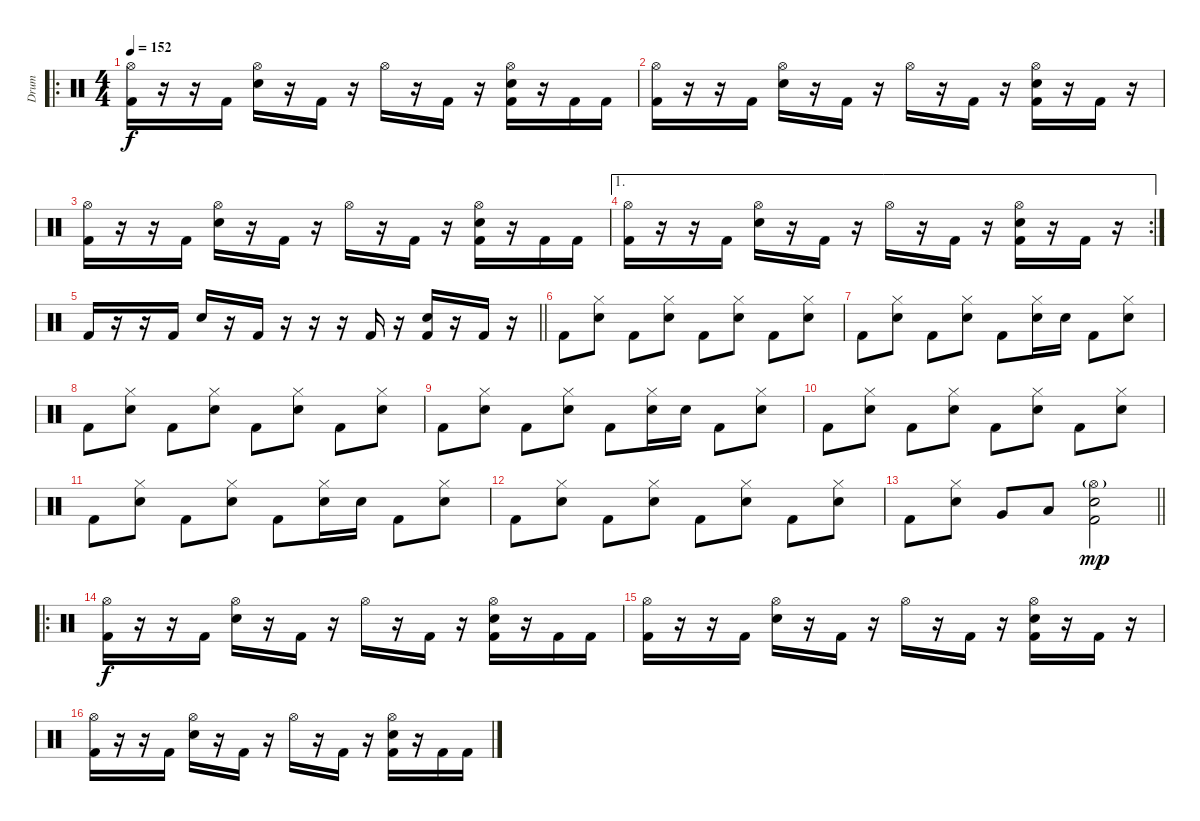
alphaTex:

\track ("Drum" "Drum") {instrument percussion}
\staff {score}
\articulation defaults
\ro
\ts (4 4)
\tempo 152
\clef neutral
\ks c
("Hi-Hat (open)" "Kick (hit) 2").16{dy f volume 16} r.16 r.16 "Kick (hit) 2".16 ("Hi-Hat (open)" "Electric Snare (hit)").16 r.16 "Kick (hit) 2".16 r.16 "Hi-Hat (open)".16 r.16 "Kick (hit) 2".16 r.16 ("Hi-Hat (open)" "Electric Snare (hit)" "Kick (hit) 2").16 r.16 "Kick (hit) 2".16 "Kick (hit) 2".16 |
("Hi-Hat (open)" "Kick (hit) 2").16 r.16 r.16 "Kick (hit) 2".16 ("Hi-Hat (open)" "Electric Snare (hit)").16 r.16 "Kick (hit) 2".16 r.16 "Hi-Hat (open)".16 r.16 "Kick (hit) 2".16 r.16 ("Hi-Hat (open)" "Electric Snare (hit)" "Kick (hit) 2").16 r.16 "Kick (hit) 2".16 r.16 |
("Hi-Hat (open)" "Kick (hit) 2").16 r.16 r.16 "Kick (hit) 2".16 ("Hi-Hat (open)" "Electric Snare (hit)").16 r.16 "Kick (hit) 2".16 r.16 "Hi-Hat (open)".16 r.16 "Kick (hit) 2".16 r.16 ("Hi-Hat (open)" "Electric Snare (hit)" "Kick (hit) 2").16 r.16 "Kick (hit) 2".16 "Kick (hit) 2".16 |
\ae 1
\rc 2
("Hi-Hat (open)" "Kick (hit) 2").16 r.16 r.16 "Kick (hit) 2".16 ("Hi-Hat (open)" "Electric Snare (hit)").16 r.16 "Kick (hit) 2".16 r.16 "Hi-Hat (open)".16 r.16 "Kick (hit) 2".16 r.16 ("Hi-Hat (open)" "Electric Snare (hit)" "Kick (hit) 2").16 r.16 "Kick (hit) 2".16 r.16 |
\barLineRight lightlight "Kick (hit) 2".16
r.16 r.16 "Kick (hit) 2".16 "Electric Snare (hit)".16 r.16 "Kick (hit) 2".16 r.16 r.16 r.16 "Kick (hit) 2".16 r.16 ("Electric Snare (hit)" "Kick (hit) 2").16 r.16 "Kick (hit) 2".16 r.16 |
"Kick (hit) 2".8 ("Hi-Hat (closed)" "Electric Snare (hit)").8 "Kick (hit) 2".8 ("Hi-Hat (closed)" "Electric Snare (hit)").8 "Kick (hit) 2".8 ("Hi-Hat (closed)" "Electric Snare (hit)").8 "Kick (hit) 2".8 ("Hi-Hat (closed)" "Electric Snare (hit)").8 |
"Kick (hit) 2".8 ("Hi-Hat (closed)" "Electric Snare (hit)").8 "Kick (hit) 2".8 ("Hi-Hat (closed)" "Electric Snare (hit)").8 "Kick (hit) 2".8 ("Hi-Hat (closed)" "Electric Snare (hit)").16 "Electric Snare (hit)".16 "Kick (hit) 2".8 ("Hi-Hat (closed)" "Electric Snare (hit)").8 |
"Kick (hit) 2".8 ("Hi-Hat (closed)" "Electric Snare (hit)").8 "Kick (hit) 2".8 ("Hi-Hat (closed)" "Electric Snare (hit)").8 "Kick (hit) 2".8 ("Hi-Hat (closed)" "Electric Snare (hit)").8 "Kick (hit) 2".8 ("Hi-Hat (closed)" "Electric Snare (hit)").8 |
"Kick (hit) 2".8 ("Hi-Hat (closed)" "Electric Snare (hit)").8 "Kick (hit) 2".8 ("Hi-Hat (closed)" "Electric Snare (hit)").8 "Kick (hit) 2".8 ("Hi-Hat (closed)" "Electric Snare (hit)").16 "Electric Snare (hit)".16 "Kick (hit) 2".8 ("Hi-Hat (closed)" "Electric Snare (hit)").8 |
"Kick (hit) 2".8 ("Hi-Hat (closed)" "Electric Snare (hit)").8 "Kick (hit) 2".8 ("Hi-Hat (closed)" "Electric Snare (hit)").8 "Kick (hit) 2".8 ("Hi-Hat (closed)" "Electric Snare (hit)").8 "Kick (hit) 2".8 ("Hi-Hat (closed)" "Electric Snare (hit)").8 |
"Kick (hit) 2".8 ("Hi-Hat (closed)" "Electric Snare (hit)").8 "Kick (hit) 2".8 ("Hi-Hat (closed)" "Electric Snare (hit)").8 "Kick (hit) 2".8 ("Hi-Hat (closed)" "Electric Snare (hit)").16 "Electric Snare (hit)".16 "Kick (hit) 2".8 ("Hi-Hat (closed)" "Electric Snare (hit)").8 |
"Kick (hit) 2".8 ("Hi-Hat (closed)" "Electric Snare (hit)").8 "Kick (hit) 2".8 ("Hi-Hat (closed)" "Electric Snare (hit)").8 "Kick (hit) 2".8 ("Hi-Hat (closed)" "Electric Snare (hit)").8 "Kick (hit) 2".8 ("Hi-Hat (closed)" "Electric Snare (hit)").8 |
\barLineRight lightlight "Kick (hit) 2".8
("Hi-Hat (closed)" "Electric Snare (hit)").8 "Very Low Tom (hit)".8 "Low Floor Tom (hit)".8 ("Hi-Hat (open)"{g pm} "Electric Snare (hit)" "Kick (hit) 2").2{dy mp} |
\ro
("Hi-Hat (open)" "Kick (hit) 2").16{dy f volume 16} r.16 r.16 "Kick (hit) 2".16 ("Hi-Hat (open)" "Electric Snare (hit)").16 r.16 "Kick (hit) 2".16 r.16 "Hi-Hat (open)".16 r.16 "Kick (hit) 2".16 r.16 ("Hi-Hat (open)" "Electric Snare (hit)" "Kick (hit) 2").16 r.16 "Kick (hit) 2".16 "Kick (hit) 2".16 |
("Hi-Hat (open)" "Kick (hit) 2").16 r.16 r.16 "Kick (hit) 2".16 ("Hi-Hat (open)" "Electric Snare (hit)").16 r.16 "Kick (hit) 2".16 r.16 "Hi-Hat (open)".16 r.16 "Kick (hit) 2".16 r.16 ("Hi-Hat (open)" "Electric Snare (hit)" "Kick (hit) 2").16 r.16 "Kick (hit) 2".16 r.16 |
("Hi-Hat (open)" "Kick (hit) 2").16 r.16 r.16 "Kick (hit) 2".16 ("Hi-Hat (open)" "Electric Snare (hit)").16 r.16 "Kick (hit) 2".16 r.16 "Hi-Hat (open)".16 r.16 "Kick (hit) 2".16 r.16 ("Hi-Hat (open)" "Electric Snare (hit)" "Kick (hit) 2").16 r.16 "Kick (hit) 2".16 "Kick (hit) 2".16
